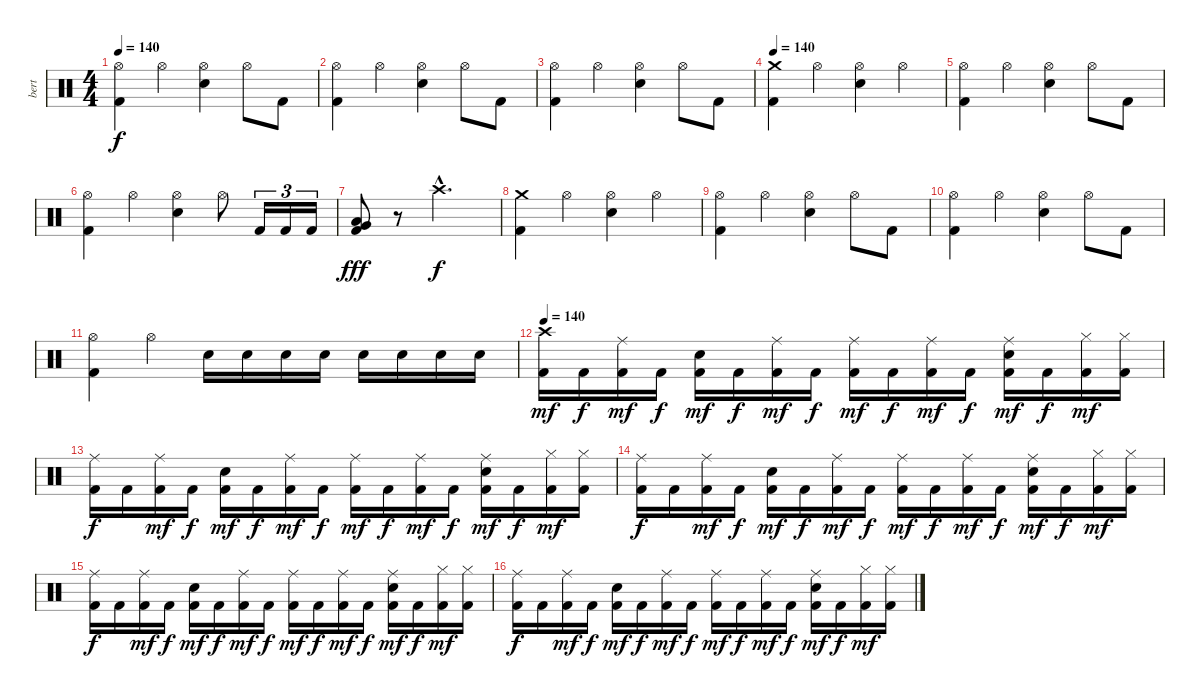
\track ("bert" "bert") {instrument percussion}
\staff {score}
\articulation defaults
\ts (4 4)
\tempo 140
\clef neutral
\ks c
("Hi-Hat (open)" "Kick (hit) 2").4{dy f} "Hi-Hat (open)".4 ("Hi-Hat (open)" "Snare (hit) 2").4 "Hi-Hat (open)".8 "Kick (hit) 2".8 |
("Hi-Hat (open)" "Kick (hit) 2").4 "Hi-Hat (open)".4 ("Hi-Hat (open)" "Snare (hit) 2").4 "Hi-Hat (open)".8 "Kick (hit) 2".8 |
("Hi-Hat (open)" "Kick (hit) 2").4 "Hi-Hat (open)".4 ("Hi-Hat (open)" "Snare (hit) 2").4 "Hi-Hat (open)".8 "Kick (hit) 2".8 |
\tempo 140
("Crash medium (hit)" "Kick (hit) 2").4 "Hi-Hat (open)".4 ("Hi-Hat (open)" "Snare (hit) 2").4 "Hi-Hat (open)".4 |
("Hi-Hat (open)" "Kick (hit) 2").4 "Hi-Hat (open)".4 ("Hi-Hat (open)" "Snare (hit) 2").4 "Hi-Hat (open)".8 "Kick (hit) 2".8 |
("Hi-Hat (open)" "Kick (hit) 2").4 "Hi-Hat (open)".4 ("Hi-Hat (open)" "Snare (hit) 2").4 "Hi-Hat (open)".8 "Kick (hit) 2".16{tu (3 2)} "Kick (hit) 2".16{tu (3 2)} "Kick (hit) 2".16{tu (3 2)} |
("Low Tom (hit)" "Very Low Tom (hit)" "Kick (hit) 2").8{dy fff} r.8 "Crash high (hit)"{hac}.2{d dy f} |
("Crash medium (hit)" "Kick (hit) 2").4 "Hi-Hat (open)".4 ("Hi-Hat (open)" "Snare (hit) 2").4 "Hi-Hat (open)".4 |
("Hi-Hat (open)" "Kick (hit) 2").4 "Hi-Hat (open)".4 ("Hi-Hat (open)" "Snare (hit) 2").4 "Hi-Hat (open)".8 "Kick (hit) 2".8 |
("Hi-Hat (open)" "Kick (hit) 2").4 "Hi-Hat (open)".4 ("Hi-Hat (open)" "Snare (hit) 2").4 "Hi-Hat (open)".8 "Kick (hit) 2".8 |
("Hi-Hat (open)" "Kick (hit) 2").4 "Hi-Hat (open)".4 "Snare (hit) 2".16 "Snare (hit) 2".16 "Snare (hit) 2".16 "Snare (hit) 2".16 "Snare (hit) 2".16 "Snare (hit) 2".16 "Snare (hit) 2".16 "Snare (hit) 2".16 |
\tempo 140
("Crash high (hit)" "Kick (hit) 2").16{dy mf} "Kick (hit) 2".16{dy f} ("Ride (middle)" "Kick (hit) 2").16{dy mf} "Kick (hit) 2".16{dy f} ("Snare (hit) 2" "Kick (hit) 2").16{dy mf} "Kick (hit) 2".16{dy f} ("Ride (middle)" "Kick (hit) 2").16{dy mf} "Kick (hit) 2".16{dy f} ("Ride (middle)" "Kick (hit) 2").16{dy mf} "Kick (hit) 2".16{dy f} ("Ride (middle)" "Kick (hit) 2").16{dy mf} "Kick (hit) 2".16{dy f} ("Ride (middle)" "Snare (hit) 2" "Kick (hit) 2").16{dy mf} "Kick (hit) 2".16{dy f} ("Hi-Hat (closed)" "Kick (hit) 2").16{dy mf} ("Hi-Hat (closed)" "Kick (hit) 2").16 |
("Ride (middle)" "Kick (hit) 2").16{dy f} "Kick (hit) 2".16 ("Ride (middle)" "Kick (hit) 2").16{dy mf} "Kick (hit) 2".16{dy f} ("Snare (hit) 2" "Kick (hit) 2").16{dy mf} "Kick (hit) 2".16{dy f} ("Ride (middle)" "Kick (hit) 2").16{dy mf} "Kick (hit) 2".16{dy f} ("Ride (middle)" "Kick (hit) 2").16{dy mf} "Kick (hit) 2".16{dy f} ("Ride (middle)" "Kick (hit) 2").16{dy mf} "Kick (hit) 2".16{dy f} ("Ride (middle)" "Snare (hit) 2" "Kick (hit) 2").16{dy mf} "Kick (hit) 2".16{dy f} ("Hi-Hat (closed)" "Kick (hit) 2").16{dy mf} ("Hi-Hat (closed)" "Kick (hit) 2").16 |
("Ride (middle)" "Kick (hit) 2").16{dy f} "Kick (hit) 2".16 ("Ride (middle)" "Kick (hit) 2").16{dy mf} "Kick (hit) 2".16{dy f} ("Snare (hit) 2" "Kick (hit) 2").16{dy mf} "Kick (hit) 2".16{dy f} ("Ride (middle)" "Kick (hit) 2").16{dy mf} "Kick (hit) 2".16{dy f} ("Ride (middle)" "Kick (hit) 2").16{dy mf} "Kick (hit) 2".16{dy f} ("Ride (middle)" "Kick (hit) 2").16{dy mf} "Kick (hit) 2".16{dy f} ("Ride (middle)" "Snare (hit) 2" "Kick (hit) 2").16{dy mf} "Kick (hit) 2".16{dy f} ("Hi-Hat (closed)" "Kick (hit) 2").16{dy mf} ("Hi-Hat (closed)" "Kick (hit) 2").16 |
("Ride (middle)" "Kick (hit) 2").16{dy f} "Kick (hit) 2".16 ("Ride (middle)" "Kick (hit) 2").16{dy mf} "Kick (hit) 2".16{dy f} ("Snare (hit) 2" "Kick (hit) 2").16{dy mf} "Kick (hit) 2".16{dy f} ("Ride (middle)" "Kick (hit) 2").16{dy mf} "Kick (hit) 2".16{dy f} ("Ride (middle)" "Kick (hit) 2").16{dy mf} "Kick (hit) 2".16{dy f} ("Ride (middle)" "Kick (hit) 2").16{dy mf} "Kick (hit) 2".16{dy f} ("Ride (middle)" "Snare (hit) 2" "Kick (hit) 2").16{dy mf} "Kick (hit) 2".16{dy f} ("Hi-Hat (closed)" "Kick (hit) 2").16{dy mf} ("Hi-Hat (closed)" "Kick (hit) 2").16 |
("Ride (middle)" "Kick (hit) 2").16{dy f} "Kick (hit) 2".16 ("Ride (middle)" "Kick (hit) 2").16{dy mf} "Kick (hit) 2".16{dy f} ("Snare (hit) 2" "Kick (hit) 2").16{dy mf} "Kick (hit) 2".16{dy f} ("Ride (middle)" "Kick (hit) 2").16{dy mf} "Kick (hit) 2".16{dy f} ("Ride (middle)" "Kick (hit) 2").16{dy mf} "Kick (hit) 2".16{dy f} ("Ride (middle)" "Kick (hit) 2").16{dy mf} "Kick (hit) 2".16{dy f} ("Ride (middle)" "Snare (hit) 2" "Kick (hit) 2").16{dy mf} "Kick (hit) 2".16{dy f} ("Hi-Hat (closed)" "Kick (hit) 2").16{dy mf} ("Hi-Hat (closed)" "Kick (hit) 2").16
